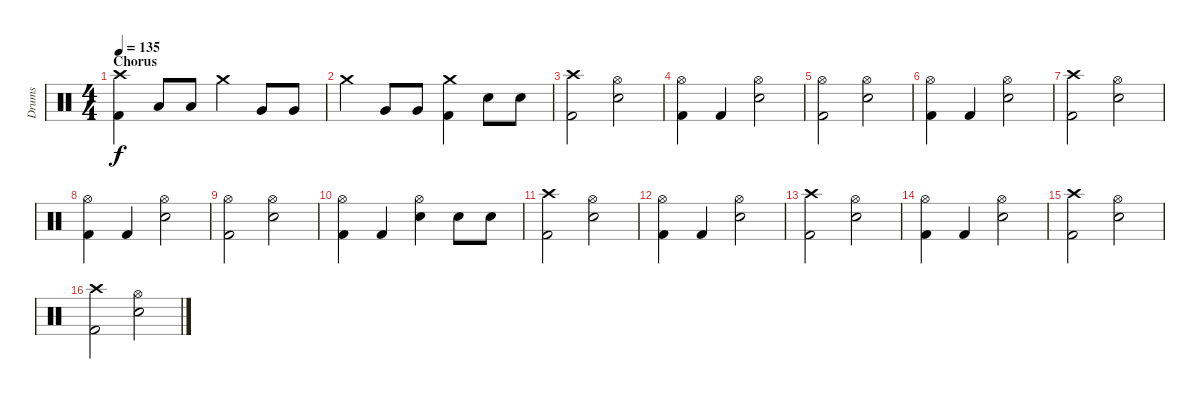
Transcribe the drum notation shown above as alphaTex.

\track ("Drums" "Drums") {instrument percussion}
\staff {score}
\articulation defaults
\ts (4 4)
\section ("" "Chorus")
\tempo 135
\clef neutral
\ks c
("Crash high (hit)" "Kick (hit) 2").4{dy f} "Low Tom (hit)".8 "Low Tom (hit)".8 "Crash medium (hit)".4 "Very Low Tom (hit)".8 "Very Low Tom (hit)".8 |
"Crash medium (hit)".4 "Very Low Tom (hit)".8 "Very Low Tom (hit)".8 ("Crash medium (hit)" "Kick (hit) 2").4 "Electric Snare (hit)".8 "Electric Snare (hit)".8 |
("Crash high (hit)" "Kick (hit) 2").2 ("Hi-Hat (open)" "Electric Snare (hit)").2 |
("Hi-Hat (open)" "Kick (hit) 2").4 "Kick (hit) 2".4 ("Hi-Hat (open)" "Electric Snare (hit)").2 |
("Hi-Hat (open)" "Kick (hit) 2").2 ("Hi-Hat (open)" "Electric Snare (hit)").2 |
("Hi-Hat (open)" "Kick (hit) 2").4 "Kick (hit) 2".4 ("Hi-Hat (open)" "Electric Snare (hit)").2 |
("Crash high (hit)" "Kick (hit) 2").2 ("Hi-Hat (open)" "Electric Snare (hit)").2 |
("Hi-Hat (open)" "Kick (hit) 2").4 "Kick (hit) 2".4 ("Hi-Hat (open)" "Electric Snare (hit)").2 |
("Hi-Hat (open)" "Kick (hit) 2").2 ("Hi-Hat (open)" "Electric Snare (hit)").2 |
("Hi-Hat (open)" "Kick (hit) 2").4 "Kick (hit) 2".4 ("Hi-Hat (open)" "Electric Snare (hit)").4 "Electric Snare (hit)".8 "Electric Snare (hit)".8 |
("Crash high (hit)" "Kick (hit) 2").2 ("Hi-Hat (open)" "Electric Snare (hit)").2 |
("Hi-Hat (open)" "Kick (hit) 2").4 "Kick (hit) 2".4 ("Hi-Hat (open)" "Electric Snare (hit)").2 |
("Crash high (hit)" "Kick (hit) 2").2 ("Hi-Hat (open)" "Electric Snare (hit)").2 |
("Hi-Hat (open)" "Kick (hit) 2").4 "Kick (hit) 2".4 ("Hi-Hat (open)" "Electric Snare (hit)").2 |
("Crash high (hit)" "Kick (hit) 2").2 ("Hi-Hat (open)" "Electric Snare (hit)").2 |
("Crash high (hit)" "Kick (hit) 2").2 ("Hi-Hat (open)" "Electric Snare (hit)").2
